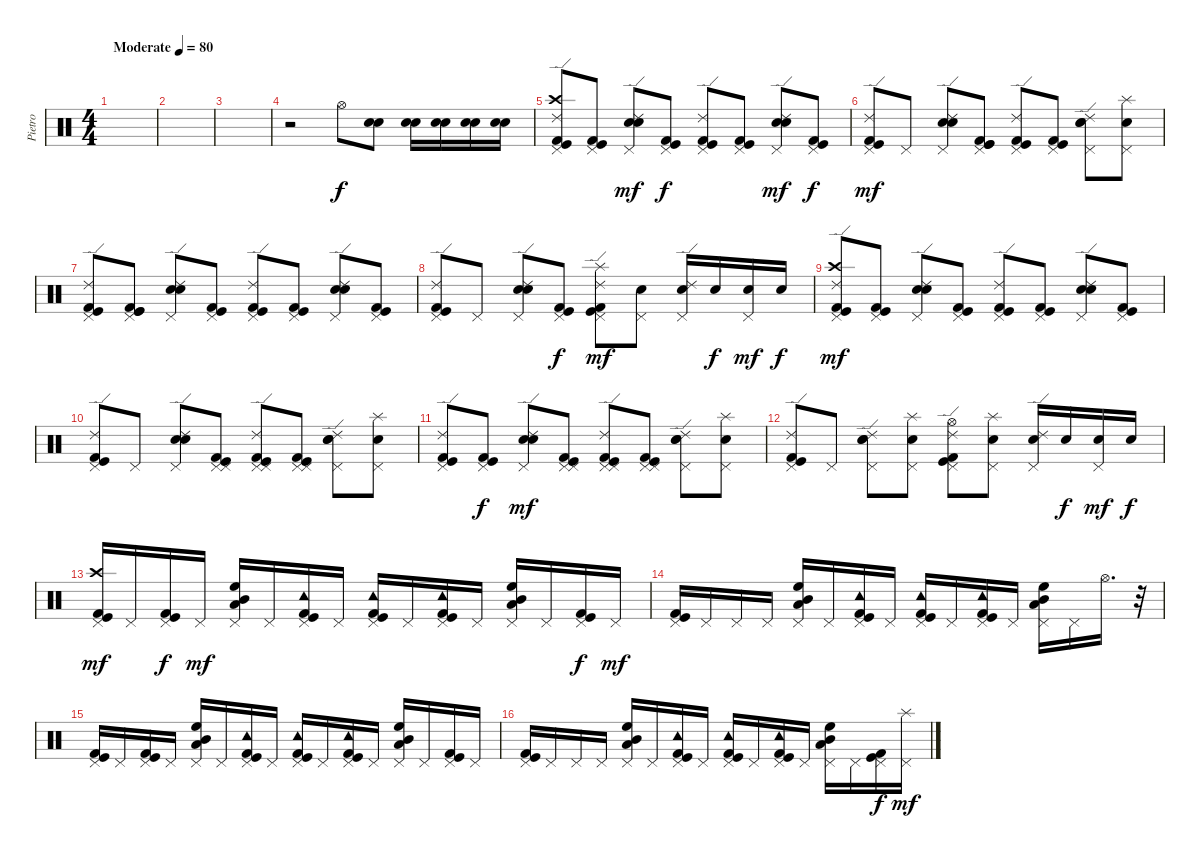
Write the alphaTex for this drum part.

\track ("Pietro" "Pietro") {instrument percussion}
\staff {score}
\articulation defaults
\ts (4 4)
\tempo (80 "Moderate")
\clef neutral
\ks c
|
|
|
r.2 "Hi-Hat (open)".8 ("Electric Snare (hit)" "Snare (hit) 2").8 ("Electric Snare (hit)" "Snare (hit) 2").16 ("Electric Snare (hit)" "Snare (hit) 2").16 ("Electric Snare (hit)" "Snare (hit) 2").16 ("Electric Snare (hit)" "Snare (hit) 2").16 |
("Pedal Hi-Hat (hit)" "Crash high (hit)" "Ride (edge) 2" "Kick (hit)" "Kick (hit) 2").8 ("Pedal Hi-Hat (hit)" "Kick (hit)" "Kick (hit) 2").8{dy f} ("Pedal Hi-Hat (hit)" "Electric Snare (hit)" "Snare (hit) 2" "Ride (edge) 2").8{dy mf} ("Pedal Hi-Hat (hit)" "Kick (hit)" "Kick (hit) 2").8{dy f} ("Pedal Hi-Hat (hit)" "Ride (edge) 2" "Kick (hit)" "Kick (hit) 2").8 ("Pedal Hi-Hat (hit)" "Kick (hit)" "Kick (hit) 2").8 ("Pedal Hi-Hat (hit)" "Electric Snare (hit)" "Snare (hit) 2" "Ride (edge) 2").8{dy mf} ("Pedal Hi-Hat (hit)" "Kick (hit)" "Kick (hit) 2").8{dy f} |
("Pedal Hi-Hat (hit)" "Ride (edge) 2" "Kick (hit)" "Kick (hit) 2").8{dy mf} "Pedal Hi-Hat (hit)".8 ("Pedal Hi-Hat (hit)" "Ride (edge) 2" "Snare (hit) 2" "Electric Snare (hit)").8 ("Pedal Hi-Hat (hit)" "Kick (hit)" "Kick (hit)" "Kick (hit) 2").8 ("Pedal Hi-Hat (hit)" "Ride (edge) 2" "Kick (hit)" "Kick (hit) 2").8 ("Pedal Hi-Hat (hit)" "Kick (hit)" "Kick (hit) 2").8 ("Pedal Hi-Hat (hit)" "Ride (edge) 2" "Snare (hit) 2" "Electric Snare (hit)").8 ("Pedal Hi-Hat (hit)" "Snare (hit) 2" "Splash (hit)").8 |
("Pedal Hi-Hat (hit)" "Ride (edge) 2" "Kick (hit)" "Kick (hit) 2").8 ("Pedal Hi-Hat (hit)" "Kick (hit)" "Kick (hit)" "Kick (hit) 2").8 ("Pedal Hi-Hat (hit)" "Ride (edge) 2" "Snare (hit) 2" "Electric Snare (hit)").8 ("Pedal Hi-Hat (hit)" "Kick (hit)" "Kick (hit) 2").8 ("Pedal Hi-Hat (hit)" "Ride (edge) 2" "Kick (hit)" "Kick (hit) 2").8 ("Pedal Hi-Hat (hit)" "Kick (hit)" "Kick (hit) 2").8 ("Pedal Hi-Hat (hit)" "Ride (edge) 2" "Snare (hit) 2" "Electric Snare (hit)").8 ("Pedal Hi-Hat (hit)" "Kick (hit)" "Kick (hit) 2").8 |
("Ride (edge) 2" "Pedal Hi-Hat (hit)" "Kick (hit)" "Kick (hit) 2").8 "Pedal Hi-Hat (hit)".8 ("Pedal Hi-Hat (hit)" "Snare (hit) 2" "Ride (edge) 2" "Electric Snare (hit)").8 ("Pedal Hi-Hat (hit)" "Kick (hit)" "Kick (hit) 2").8{dy f} ("Pedal Hi-Hat (hit)" "Splash (hit)" "Ride (edge) 2" "Kick (hit)" "Kick (hit) 2").8{dy mf} ("Pedal Hi-Hat (hit)" "Snare (hit) 2").8 ("Pedal Hi-Hat (hit)" "Snare (hit) 2" "Ride (edge) 2").16 "Snare (hit) 2".16{dy f} ("Pedal Hi-Hat (hit)" "Snare (hit) 2").16{dy mf} "Snare (hit) 2".16{dy f} |
("Pedal Hi-Hat (hit)" "Ride (edge) 2" "Crash high (hit)" "Kick (hit)" "Kick (hit) 2").8{dy mf} ("Pedal Hi-Hat (hit)" "Kick (hit)" "Kick (hit) 2").8 ("Pedal Hi-Hat (hit)" "Ride (edge) 2" "Snare (hit) 2" "Electric Snare (hit)").8 ("Pedal Hi-Hat (hit)" "Kick (hit)" "Kick (hit) 2").8 ("Pedal Hi-Hat (hit)" "Ride (edge) 2" "Kick (hit)" "Kick (hit) 2").8 ("Pedal Hi-Hat (hit)" "Kick (hit)" "Kick (hit) 2").8 ("Pedal Hi-Hat (hit)" "Ride (edge) 2" "Snare (hit) 2" "Electric Snare (hit)").8 ("Pedal Hi-Hat (hit)" "Kick (hit)" "Kick (hit) 2").8 |
("Pedal Hi-Hat (hit)" "Ride (edge) 2" "Kick (hit)" "Kick (hit) 2").8 "Pedal Hi-Hat (hit)".8 ("Pedal Hi-Hat (hit)" "Snare (hit) 2" "Ride (edge) 2" "Electric Snare (hit)").8 ("Pedal Hi-Hat (hit)" "Pedal Hi-Hat (hit)" "Kick (hit)" "Kick (hit) 2").8 ("Pedal Hi-Hat (hit)" "Ride (edge) 2" "Pedal Hi-Hat (hit)" "Kick (hit)" "Kick (hit) 2").8 ("Pedal Hi-Hat (hit)" "Pedal Hi-Hat (hit)" "Kick (hit)" "Kick (hit) 2").8 ("Pedal Hi-Hat (hit)" "Snare (hit) 2" "Ride (edge) 2" "Electric Snare (hit)").8 ("Pedal Hi-Hat (hit)" "Snare (hit) 2" "Splash (hit)").8 |
("Pedal Hi-Hat (hit)" "Ride (edge) 2" "Kick (hit)" "Kick (hit) 2").8 ("Pedal Hi-Hat (hit)" "Kick (hit)" "Kick (hit) 2").8{dy f} ("Pedal Hi-Hat (hit)" "Snare (hit) 2" "Ride (edge) 2" "Electric Snare (hit)").8{dy mf} ("Pedal Hi-Hat (hit)" "Pedal Hi-Hat (hit)" "Kick (hit)" "Kick (hit) 2").8 ("Pedal Hi-Hat (hit)" "Ride (edge) 2" "Pedal Hi-Hat (hit)" "Kick (hit)" "Kick (hit) 2").8 ("Pedal Hi-Hat (hit)" "Pedal Hi-Hat (hit)" "Kick (hit)" "Kick (hit) 2").8 ("Pedal Hi-Hat (hit)" "Ride (edge) 2" "Snare (hit) 2" "Electric Snare (hit)").8 ("Pedal Hi-Hat (hit)" "Splash (hit)" "Snare (hit) 2").8 |
("Pedal Hi-Hat (hit)" "Ride (edge) 2" "Kick (hit)" "Kick (hit) 2").8 "Pedal Hi-Hat (hit)".8 ("Pedal Hi-Hat (hit)" "Ride (edge) 2" "Snare (hit) 2" "Electric Snare (hit)").8 ("Pedal Hi-Hat (hit)" "Snare (hit) 2" "Splash (hit)").8 ("Pedal Hi-Hat (hit)" "Hi-Hat (open)" "Ride (edge) 2" "Kick (hit)" "Kick (hit) 2").8 ("Pedal Hi-Hat (hit)" "Splash (hit)" "Snare (hit) 2").8 ("Pedal Hi-Hat (hit)" "Snare (hit) 2" "Ride (edge) 2").16 "Snare (hit) 2".16{dy f} ("Pedal Hi-Hat (hit)" "Snare (hit) 2").16{dy mf} "Snare (hit) 2".16{dy f} |
("Pedal Hi-Hat (hit)" "Crash high (hit)" "Kick (hit)" "Kick (hit) 2").16{dy mf} "Pedal Hi-Hat (hit)".16 ("Pedal Hi-Hat (hit)" "Kick (hit)" "Kick (hit) 2").16{dy f} "Pedal Hi-Hat (hit)".16{dy mf} ("Pedal Hi-Hat (hit)" "Mid Tom (hit)" "High Floor Tom (hit)" "Low Tom (hit)").16 "Pedal Hi-Hat (hit)".16 ("Pedal Hi-Hat (hit)" "Tambourine (hit)" "Kick (hit)" "Kick (hit) 2").16 "Pedal Hi-Hat (hit)".16 ("Pedal Hi-Hat (hit)" "Tambourine (hit)" "Kick (hit)" "Kick (hit) 2").16 "Pedal Hi-Hat (hit)".16 ("Pedal Hi-Hat (hit)" "Tambourine (hit)" "Kick (hit)" "Kick (hit) 2").16 "Pedal Hi-Hat (hit)".16 ("Pedal Hi-Hat (hit)" "High Floor Tom (hit)" "Mid Tom (hit)" "Low Tom (hit)").16 "Pedal Hi-Hat (hit)".16 ("Pedal Hi-Hat (hit)" "Kick (hit)" "Kick (hit) 2").16{dy f} "Pedal Hi-Hat (hit)".16{dy mf} |
("Pedal Hi-Hat (hit)" "Kick (hit)" "Kick (hit) 2").16 "Pedal Hi-Hat (hit)".16 "Pedal Hi-Hat (hit)".16 "Pedal Hi-Hat (hit)".16 ("Pedal Hi-Hat (hit)" "High Floor Tom (hit)" "Mid Tom (hit)" "Low Tom (hit)").16 "Pedal Hi-Hat (hit)".16 ("Pedal Hi-Hat (hit)" "Tambourine (hit)" "Kick (hit)" "Kick (hit) 2").16 "Pedal Hi-Hat (hit)".16 ("Pedal Hi-Hat (hit)" "Tambourine (hit)" "Kick (hit)" "Kick (hit) 2").16 "Pedal Hi-Hat (hit)".16 ("Pedal Hi-Hat (hit)" "Tambourine (hit)" "Kick (hit)" "Kick (hit) 2").16 "Pedal Hi-Hat (hit)".16 ("Pedal Hi-Hat (hit)" "High Floor Tom (hit)" "Mid Tom (hit)" "Low Tom (hit)").16 "Pedal Hi-Hat (hit)".16 "Hi-Hat (open)".16{d} r.32 |
("Pedal Hi-Hat (hit)" "Kick (hit)" "Kick (hit) 2").16 "Pedal Hi-Hat (hit)".16 ("Pedal Hi-Hat (hit)" "Kick (hit)" "Kick (hit) 2").16 "Pedal Hi-Hat (hit)".16 ("Pedal Hi-Hat (hit)" "High Floor Tom (hit)" "Mid Tom (hit)" "Low Tom (hit)").16 "Pedal Hi-Hat (hit)".16 ("Pedal Hi-Hat (hit)" "Tambourine (hit)" "Kick (hit)" "Kick (hit) 2").16 "Pedal Hi-Hat (hit)".16 ("Pedal Hi-Hat (hit)" "Tambourine (hit)" "Kick (hit)" "Kick (hit) 2").16 "Pedal Hi-Hat (hit)".16 ("Pedal Hi-Hat (hit)" "Tambourine (hit)" "Kick (hit)" "Kick (hit) 2").16 "Pedal Hi-Hat (hit)".16 ("Pedal Hi-Hat (hit)" "High Floor Tom (hit)" "Mid Tom (hit)" "Low Tom (hit)").16 "Pedal Hi-Hat (hit)".16 ("Pedal Hi-Hat (hit)" "Kick (hit)" "Kick (hit) 2").16 "Pedal Hi-Hat (hit)".16 |
("Pedal Hi-Hat (hit)" "Kick (hit)" "Kick (hit) 2").16 "Pedal Hi-Hat (hit)".16 "Pedal Hi-Hat (hit)".16 "Pedal Hi-Hat (hit)".16 ("Pedal Hi-Hat (hit)" "High Floor Tom (hit)" "Mid Tom (hit)" "Low Tom (hit)").16 "Pedal Hi-Hat (hit)".16 ("Pedal Hi-Hat (hit)" "Tambourine (hit)" "Kick (hit)" "Kick (hit) 2").16 "Pedal Hi-Hat (hit)".16 ("Pedal Hi-Hat (hit)" "Tambourine (hit)" "Kick (hit)" "Kick (hit) 2").16 "Pedal Hi-Hat (hit)".16 ("Pedal Hi-Hat (hit)" "Tambourine (hit)" "Kick (hit)" "Kick (hit) 2").16 "Pedal Hi-Hat (hit)".16 ("Pedal Hi-Hat (hit)" "High Floor Tom (hit)" "Mid Tom (hit)" "Low Tom (hit)").16 "Pedal Hi-Hat (hit)".16 ("Pedal Hi-Hat (hit)" "Kick (hit)" "Kick (hit) 2").16{dy f} ("Pedal Hi-Hat (hit)" "Splash (hit)").16{dy mf}
